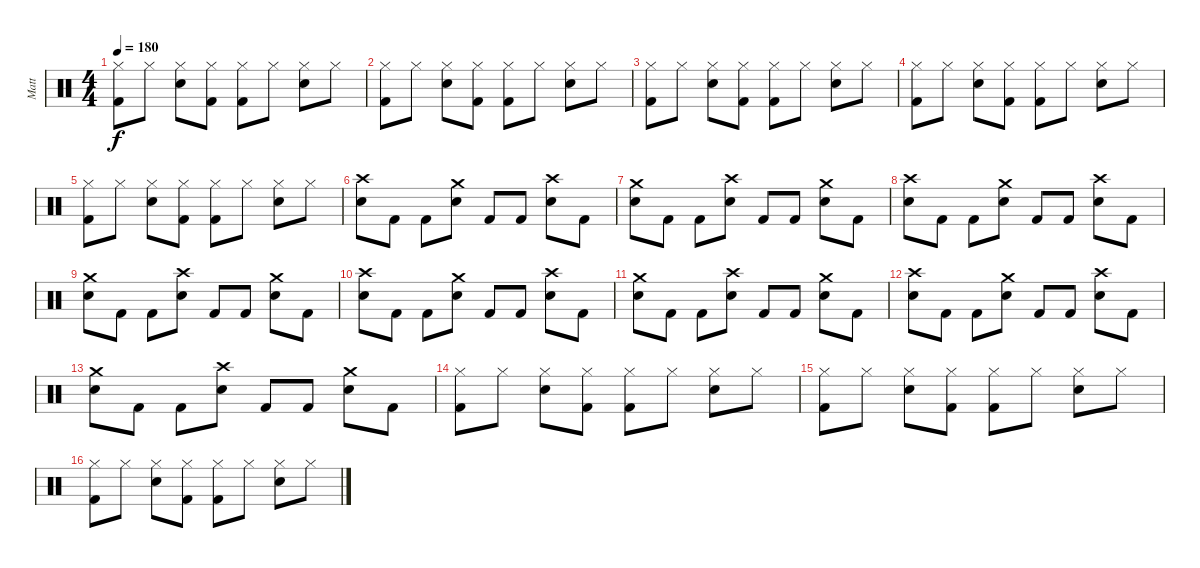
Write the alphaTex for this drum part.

\track ("Matt" "Matt") {instrument percussion}
\staff {score}
\articulation defaults
\ts (4 4)
\tempo 180
\clef neutral
\ks c
("Hi-Hat (closed)" "Kick (hit) 2").8{dy f} "Hi-Hat (closed)".8 ("Hi-Hat (closed)" "Snare (hit) 2").8 ("Hi-Hat (closed)" "Kick (hit) 2").8 ("Hi-Hat (closed)" "Kick (hit) 2").8 "Hi-Hat (closed)".8 ("Hi-Hat (closed)" "Snare (hit) 2").8 "Hi-Hat (closed)".8 |
("Hi-Hat (closed)" "Kick (hit) 2").8 "Hi-Hat (closed)".8 ("Hi-Hat (closed)" "Snare (hit) 2").8 ("Hi-Hat (closed)" "Kick (hit) 2").8 ("Hi-Hat (closed)" "Kick (hit) 2").8 "Hi-Hat (closed)".8 ("Hi-Hat (closed)" "Snare (hit) 2").8 "Hi-Hat (closed)".8 |
("Hi-Hat (closed)" "Kick (hit) 2").8 "Hi-Hat (closed)".8 ("Hi-Hat (closed)" "Snare (hit) 2").8 ("Hi-Hat (closed)" "Kick (hit) 2").8 ("Hi-Hat (closed)" "Kick (hit) 2").8 "Hi-Hat (closed)".8 ("Hi-Hat (closed)" "Snare (hit) 2").8 "Hi-Hat (closed)".8 |
("Hi-Hat (closed)" "Kick (hit) 2").8 "Hi-Hat (closed)".8 ("Hi-Hat (closed)" "Snare (hit) 2").8 ("Hi-Hat (closed)" "Kick (hit) 2").8 ("Hi-Hat (closed)" "Kick (hit) 2").8 "Hi-Hat (closed)".8 ("Hi-Hat (closed)" "Snare (hit) 2").8 "Hi-Hat (closed)".8 |
("Hi-Hat (closed)" "Kick (hit) 2").8 "Hi-Hat (closed)".8 ("Hi-Hat (closed)" "Snare (hit) 2").8 ("Hi-Hat (closed)" "Kick (hit) 2").8 ("Hi-Hat (closed)" "Kick (hit) 2").8 "Hi-Hat (closed)".8 ("Hi-Hat (closed)" "Snare (hit) 2").8 "Hi-Hat (closed)".8 |
("Crash high (hit)" "Snare (hit) 2").8 "Kick (hit) 2".8 "Kick (hit) 2".8 ("Crash medium (hit)" "Snare (hit) 2").8 "Kick (hit) 2".8 "Kick (hit) 2".8 ("Crash high (hit)" "Snare (hit) 2").8 "Kick (hit) 2".8 |
("Crash medium (hit)" "Snare (hit) 2").8 "Kick (hit) 2".8 "Kick (hit) 2".8 ("Crash high (hit)" "Snare (hit) 2").8 "Kick (hit) 2".8 "Kick (hit) 2".8 ("Crash medium (hit)" "Snare (hit) 2").8 "Kick (hit) 2".8 |
("Crash high (hit)" "Snare (hit) 2").8 "Kick (hit) 2".8 "Kick (hit) 2".8 ("Crash medium (hit)" "Snare (hit) 2").8 "Kick (hit) 2".8 "Kick (hit) 2".8 ("Crash high (hit)" "Snare (hit) 2").8 "Kick (hit) 2".8 |
("Crash medium (hit)" "Snare (hit) 2").8 "Kick (hit) 2".8 "Kick (hit) 2".8 ("Crash high (hit)" "Snare (hit) 2").8 "Kick (hit) 2".8 "Kick (hit) 2".8 ("Crash medium (hit)" "Snare (hit) 2").8 "Kick (hit) 2".8 |
("Crash high (hit)" "Snare (hit) 2").8 "Kick (hit) 2".8 "Kick (hit) 2".8 ("Crash medium (hit)" "Snare (hit) 2").8 "Kick (hit) 2".8 "Kick (hit) 2".8 ("Crash high (hit)" "Snare (hit) 2").8 "Kick (hit) 2".8 |
("Crash medium (hit)" "Snare (hit) 2").8 "Kick (hit) 2".8 "Kick (hit) 2".8 ("Crash high (hit)" "Snare (hit) 2").8 "Kick (hit) 2".8 "Kick (hit) 2".8 ("Crash medium (hit)" "Snare (hit) 2").8 "Kick (hit) 2".8 |
("Crash high (hit)" "Snare (hit) 2").8 "Kick (hit) 2".8 "Kick (hit) 2".8 ("Crash medium (hit)" "Snare (hit) 2").8 "Kick (hit) 2".8 "Kick (hit) 2".8 ("Crash high (hit)" "Snare (hit) 2").8 "Kick (hit) 2".8 |
("Crash medium (hit)" "Snare (hit) 2").8 "Kick (hit) 2".8 "Kick (hit) 2".8 ("Crash high (hit)" "Snare (hit) 2").8 "Kick (hit) 2".8 "Kick (hit) 2".8 ("Crash medium (hit)" "Snare (hit) 2").8 "Kick (hit) 2".8 |
("Hi-Hat (closed)" "Kick (hit) 2").8 "Hi-Hat (closed)".8 ("Hi-Hat (closed)" "Snare (hit) 2").8 ("Hi-Hat (closed)" "Kick (hit) 2").8 ("Hi-Hat (closed)" "Kick (hit) 2").8 "Hi-Hat (closed)".8 ("Hi-Hat (closed)" "Snare (hit) 2").8 "Hi-Hat (closed)".8 |
("Hi-Hat (closed)" "Kick (hit) 2").8 "Hi-Hat (closed)".8 ("Hi-Hat (closed)" "Snare (hit) 2").8 ("Hi-Hat (closed)" "Kick (hit) 2").8 ("Hi-Hat (closed)" "Kick (hit) 2").8 "Hi-Hat (closed)".8 ("Hi-Hat (closed)" "Snare (hit) 2").8 "Hi-Hat (closed)".8 |
("Hi-Hat (closed)" "Kick (hit) 2").8 "Hi-Hat (closed)".8 ("Hi-Hat (closed)" "Snare (hit) 2").8 ("Hi-Hat (closed)" "Kick (hit) 2").8 ("Hi-Hat (closed)" "Kick (hit) 2").8 "Hi-Hat (closed)".8 ("Hi-Hat (closed)" "Snare (hit) 2").8 "Hi-Hat (closed)".8
